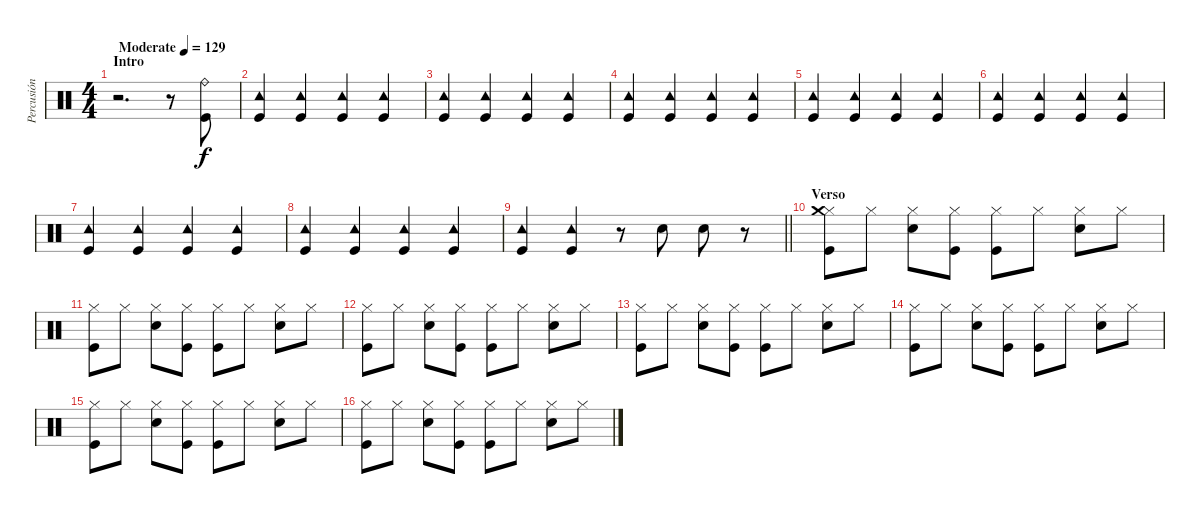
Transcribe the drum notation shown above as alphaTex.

\track ("Percusión" "Percusión") {instrument percussion}
\staff {score}
\articulation defaults
\ts (4 4)
\section ("" "Intro")
\tempo (129 "Moderate")
\clef neutral
\ks c
r.2{d dy f} r.8 ("Kick (hit)" "Ride (bell)").8 |
("Kick (hit)" "Tambourine (hit)").4 ("Kick (hit)" "Tambourine (hit)").4 ("Kick (hit)" "Tambourine (hit)").4 ("Kick (hit)" "Tambourine (hit)").4 |
("Kick (hit)" "Tambourine (hit)").4 ("Kick (hit)" "Tambourine (hit)").4 ("Kick (hit)" "Tambourine (hit)").4 ("Kick (hit)" "Tambourine (hit)").4 |
("Kick (hit)" "Tambourine (hit)").4 ("Kick (hit)" "Tambourine (hit)").4 ("Kick (hit)" "Tambourine (hit)").4 ("Kick (hit)" "Tambourine (hit)").4 |
("Kick (hit)" "Tambourine (hit)").4 ("Kick (hit)" "Tambourine (hit)").4 ("Kick (hit)" "Tambourine (hit)").4 ("Kick (hit)" "Tambourine (hit)").4 |
("Kick (hit)" "Tambourine (hit)").4 ("Kick (hit)" "Tambourine (hit)").4 ("Kick (hit)" "Tambourine (hit)").4 ("Kick (hit)" "Tambourine (hit)").4 |
("Kick (hit)" "Tambourine (hit)").4 ("Kick (hit)" "Tambourine (hit)").4 ("Kick (hit)" "Tambourine (hit)").4 ("Kick (hit)" "Tambourine (hit)").4 |
("Kick (hit)" "Tambourine (hit)").4 ("Kick (hit)" "Tambourine (hit)").4 ("Kick (hit)" "Tambourine (hit)").4 ("Kick (hit)" "Tambourine (hit)").4 |
\barLineRight lightlight
("Kick (hit)" "Tambourine (hit)").4 ("Kick (hit)" "Tambourine (hit)").4 r.8 "Electric Snare (hit)".8 "Electric Snare (hit)".8 r.8 |
\section ("" "Verso")
("Hi-Hat (closed)" "Kick (hit)" "Crash medium (hit)").8 "Hi-Hat (closed)".8 ("Hi-Hat (closed)" "Electric Snare (hit)").8 ("Hi-Hat (closed)" "Kick (hit)").8 ("Hi-Hat (closed)" "Kick (hit)").8 "Hi-Hat (closed)".8 ("Hi-Hat (closed)" "Electric Snare (hit)").8 "Hi-Hat (closed)".8 |
("Hi-Hat (closed)" "Kick (hit)").8 "Hi-Hat (closed)".8 ("Hi-Hat (closed)" "Electric Snare (hit)").8 ("Hi-Hat (closed)" "Kick (hit)").8 ("Hi-Hat (closed)" "Kick (hit)").8 "Hi-Hat (closed)".8 ("Hi-Hat (closed)" "Electric Snare (hit)").8 "Hi-Hat (closed)".8 |
("Hi-Hat (closed)" "Kick (hit)").8 "Hi-Hat (closed)".8 ("Hi-Hat (closed)" "Electric Snare (hit)").8 ("Hi-Hat (closed)" "Kick (hit)").8 ("Hi-Hat (closed)" "Kick (hit)").8 "Hi-Hat (closed)".8 ("Hi-Hat (closed)" "Electric Snare (hit)").8 "Hi-Hat (closed)".8 |
("Hi-Hat (closed)" "Kick (hit)").8 "Hi-Hat (closed)".8 ("Hi-Hat (closed)" "Electric Snare (hit)").8 ("Hi-Hat (closed)" "Kick (hit)").8 ("Hi-Hat (closed)" "Kick (hit)").8 "Hi-Hat (closed)".8 ("Hi-Hat (closed)" "Electric Snare (hit)").8 "Hi-Hat (closed)".8 |
("Hi-Hat (closed)" "Kick (hit)").8 "Hi-Hat (closed)".8 ("Hi-Hat (closed)" "Electric Snare (hit)").8 ("Hi-Hat (closed)" "Kick (hit)").8 ("Hi-Hat (closed)" "Kick (hit)").8 "Hi-Hat (closed)".8 ("Hi-Hat (closed)" "Electric Snare (hit)").8 "Hi-Hat (closed)".8 |
("Hi-Hat (closed)" "Kick (hit)").8 "Hi-Hat (closed)".8 ("Hi-Hat (closed)" "Electric Snare (hit)").8 ("Hi-Hat (closed)" "Kick (hit)").8 ("Hi-Hat (closed)" "Kick (hit)").8 "Hi-Hat (closed)".8 ("Hi-Hat (closed)" "Electric Snare (hit)").8 "Hi-Hat (closed)".8 |
("Hi-Hat (closed)" "Kick (hit)").8 "Hi-Hat (closed)".8 ("Hi-Hat (closed)" "Electric Snare (hit)").8 ("Hi-Hat (closed)" "Kick (hit)").8 ("Hi-Hat (closed)" "Kick (hit)").8 "Hi-Hat (closed)".8 ("Hi-Hat (closed)" "Electric Snare (hit)").8 "Hi-Hat (closed)".8
